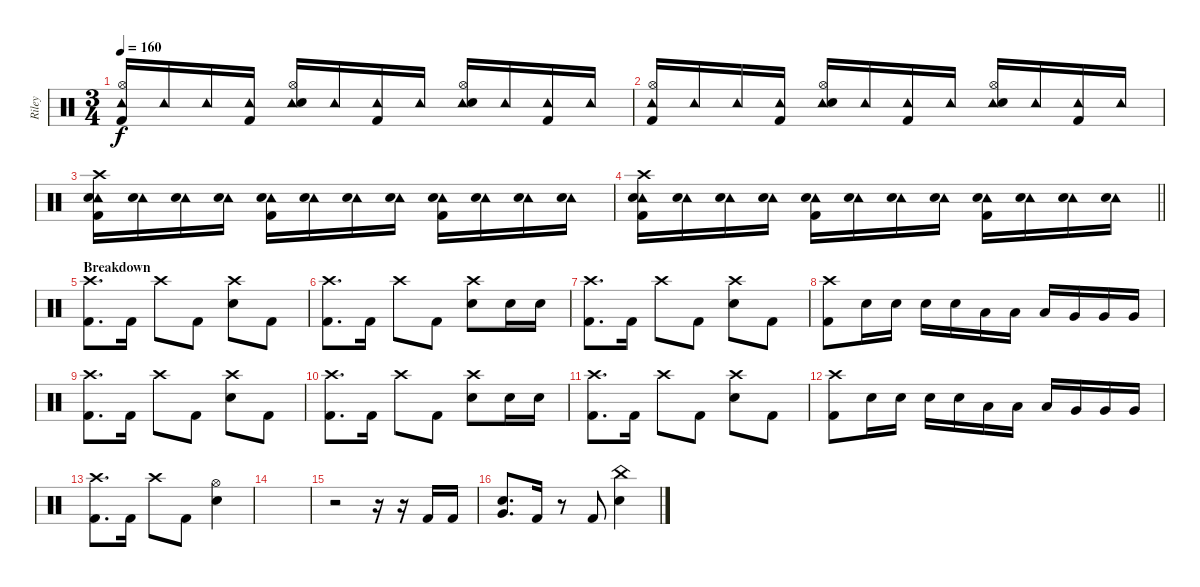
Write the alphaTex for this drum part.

\track ("Riley" "Riley") {instrument percussion}
\staff {score}
\articulation defaults
\ts (3 4)
\tempo 160
\clef neutral
\ks c
("Tambourine (hit)" "Hi-Hat (open)" "Kick (hit) 2").16{dy f} "Tambourine (hit)".16 "Tambourine (hit)".16 ("Tambourine (hit)" "Kick (hit) 2").16 ("Tambourine (hit)" "Hi-Hat (open)" "Electric Snare (hit)").16 "Tambourine (hit)".16 ("Tambourine (hit)" "Kick (hit) 2").16 "Tambourine (hit)".16 ("Tambourine (hit)" "Hi-Hat (open)" "Electric Snare (hit)").16 "Tambourine (hit)".16 ("Tambourine (hit)" "Kick (hit) 2").16 "Tambourine (hit)".16 |
("Tambourine (hit)" "Hi-Hat (open)" "Kick (hit) 2").16 "Tambourine (hit)".16 "Tambourine (hit)".16 ("Tambourine (hit)" "Kick (hit) 2").16 ("Tambourine (hit)" "Hi-Hat (open)" "Electric Snare (hit)").16 "Tambourine (hit)".16 ("Tambourine (hit)" "Kick (hit) 2").16 "Tambourine (hit)".16 ("Tambourine (hit)" "Hi-Hat (open)" "Electric Snare (hit)").16 "Tambourine (hit)".16 ("Tambourine (hit)" "Kick (hit) 2").16 "Tambourine (hit)".16 |
("Tambourine (hit)" "Crash high (hit)" "Electric Snare (hit)" "Kick (hit) 2").16 ("Tambourine (hit)" "Electric Snare (hit)").16 ("Tambourine (hit)" "Electric Snare (hit)").16 ("Tambourine (hit)" "Electric Snare (hit)").16 ("Tambourine (hit)" "Electric Snare (hit)" "Kick (hit) 2").16 ("Tambourine (hit)" "Electric Snare (hit)").16 ("Tambourine (hit)" "Electric Snare (hit)").16 ("Tambourine (hit)" "Electric Snare (hit)").16 ("Tambourine (hit)" "Electric Snare (hit)" "Kick (hit) 2").16 ("Tambourine (hit)" "Electric Snare (hit)").16 ("Tambourine (hit)" "Electric Snare (hit)").16 ("Tambourine (hit)" "Electric Snare (hit)").16 |
\barLineRight lightlight
("Tambourine (hit)" "Crash high (hit)" "Electric Snare (hit)" "Kick (hit) 2").16 ("Tambourine (hit)" "Electric Snare (hit)").16 ("Tambourine (hit)" "Electric Snare (hit)").16 ("Tambourine (hit)" "Electric Snare (hit)").16 ("Tambourine (hit)" "Electric Snare (hit)" "Kick (hit) 2").16 ("Tambourine (hit)" "Electric Snare (hit)").16 ("Tambourine (hit)" "Electric Snare (hit)").16 ("Tambourine (hit)" "Electric Snare (hit)").16 ("Tambourine (hit)" "Electric Snare (hit)" "Kick (hit) 2").16 ("Tambourine (hit)" "Electric Snare (hit)").16 ("Tambourine (hit)" "Electric Snare (hit)").16 ("Tambourine (hit)" "Electric Snare (hit)").16 |
\section ("" "Breakdown")
("Crash high (hit)" "Kick (hit) 2").8{d} "Kick (hit) 2".16 "Crash high (hit)".8 "Kick (hit) 2".8 ("Crash high (hit)" "Electric Snare (hit)").8 "Kick (hit) 2".8 |
("Crash high (hit)" "Kick (hit) 2").8{d} "Kick (hit) 2".16 "Crash high (hit)".8 "Kick (hit) 2".8 ("Crash high (hit)" "Electric Snare (hit)").8 "Electric Snare (hit)".16 "Electric Snare (hit)".16 |
("Crash high (hit)" "Kick (hit) 2").8{d} "Kick (hit) 2".16 "Crash high (hit)".8 "Kick (hit) 2".8 ("Crash high (hit)" "Electric Snare (hit)").8 "Kick (hit) 2".8 |
("Crash high (hit)" "Kick (hit) 2").8 "Electric Snare (hit)".16 "Electric Snare (hit)".16 "Electric Snare (hit)".16 "Electric Snare (hit)".16 "Low Tom (hit)".16 "Low Tom (hit)".16 "Low Tom (hit)".16 "Very Low Tom (hit)".16 "Very Low Tom (hit)".16 "Very Low Tom (hit)".16 |
("Crash high (hit)" "Kick (hit) 2").8{d} "Kick (hit) 2".16 "Crash high (hit)".8 "Kick (hit) 2".8 ("Crash high (hit)" "Electric Snare (hit)").8 "Kick (hit) 2".8 |
("Crash high (hit)" "Kick (hit) 2").8{d} "Kick (hit) 2".16 "Crash high (hit)".8 "Kick (hit) 2".8 ("Crash high (hit)" "Electric Snare (hit)").8 "Electric Snare (hit)".16 "Electric Snare (hit)".16 |
("Crash high (hit)" "Kick (hit) 2").8{d} "Kick (hit) 2".16 "Crash high (hit)".8 "Kick (hit) 2".8 ("Crash high (hit)" "Electric Snare (hit)").8 "Kick (hit) 2".8 |
("Crash high (hit)" "Kick (hit) 2").8 "Electric Snare (hit)".16 "Electric Snare (hit)".16 "Electric Snare (hit)".16 "Electric Snare (hit)".16 "Low Tom (hit)".16 "Low Tom (hit)".16 "Low Tom (hit)".16 "Very Low Tom (hit)".16 "Very Low Tom (hit)".16 "Very Low Tom (hit)".16 |
("Crash high (hit)" "Kick (hit) 2").8{d} "Kick (hit) 2".16 "Crash high (hit)".8 "Kick (hit) 2".8 ("Hi-Hat (open)" "Electric Snare (hit)").4 |
|
r.2 r.16 r.16 "Kick (hit) 2".16 "Kick (hit) 2".16 |
("Very Low Tom (hit)" "Electric Snare (hit)").8{d} "Kick (hit) 2".16 r.8 "Kick (hit) 2".8 ("China (hit)" "Electric Snare (hit)").4
